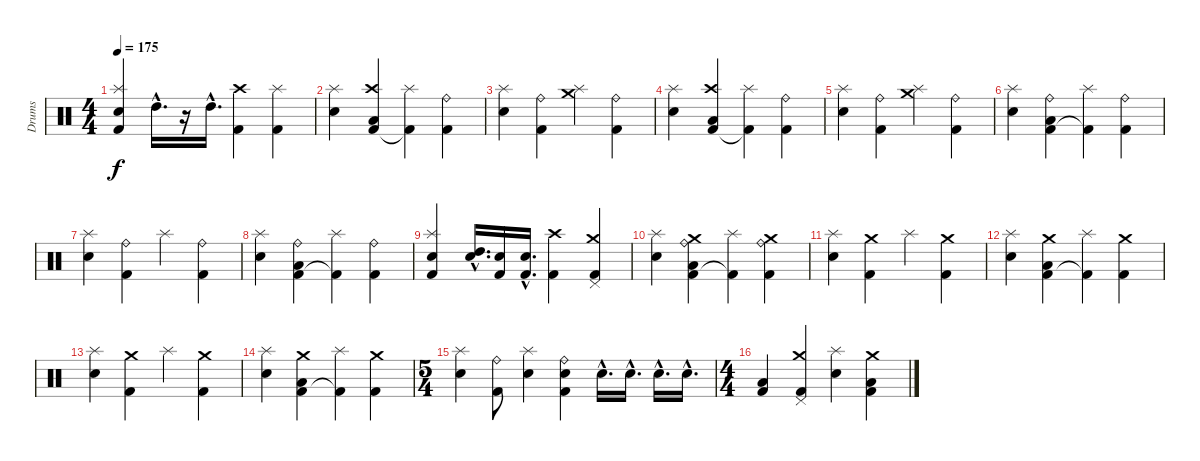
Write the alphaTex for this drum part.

\track ("Drums" "Drums") {instrument percussion}
\staff {score}
\articulation defaults
\ts (4 4)
\tempo 175
\clef neutral
\ks c
("Electric Snare (hit)" "Splash (hit)" "Kick (hit) 2").4{dy f} "High Tom (hit)"{hac}.16{d} r.16 "High Tom (hit)"{hac}.16{d} ("Kick (hit) 2" "Crash high (hit)").4 ("Kick (hit) 2" "Splash (hit)").4 |
("Electric Snare (hit)" "Splash (hit)").4 ("Kick (hit) 2" "Low Tom (hit)" "Crash high (hit)").4 ("Kick (hit) 2"{t} "Splash (hit)").4 ("Kick (hit) 2" "Ride (bell)").4 |
("Electric Snare (hit)" "Splash (hit)").4 ("Kick (hit) 2" "Ride (bell)").4 ("Crash medium (hit)" "Splash (hit)").4 ("Kick (hit) 2" "Ride (bell)").4 |
("Electric Snare (hit)" "Splash (hit)").4 ("Kick (hit) 2" "Low Tom (hit)" "Crash high (hit)").4 ("Kick (hit) 2"{t} "Splash (hit)").4 ("Kick (hit) 2" "Ride (bell)").4 |
("Electric Snare (hit)" "Splash (hit)").4 ("Kick (hit) 2" "Ride (bell)").4 ("Crash medium (hit)" "Splash (hit)").4 ("Kick (hit) 2" "Ride (bell)").4 |
("Electric Snare (hit)" "Splash (hit)").4 ("Kick (hit) 2" "Low Tom (hit)" "Ride (bell)").4 ("Kick (hit) 2"{t} "Splash (hit)").4 ("Kick (hit) 2" "Ride (bell)").4 |
("Electric Snare (hit)" "Splash (hit)").4 ("Kick (hit) 2" "Ride (bell)").4 "Splash (hit)".4 ("Kick (hit) 2" "Ride (bell)").4 |
("Electric Snare (hit)" "Splash (hit)").4 ("Kick (hit) 2" "Low Tom (hit)" "Ride (bell)").4 ("Kick (hit) 2"{t} "Splash (hit)").4 ("Kick (hit) 2" "Ride (bell)").4 |
("Electric Snare (hit)" "Splash (hit)" "Kick (hit) 2").4 ("High Tom (hit)"{hac} "Electric Snare (hit)"{hac}).16{d} ("Electric Snare (hit)" "Kick (hit) 2").16 ("Electric Snare (hit)"{hac} "Kick (hit) 2"{hac}).16{d} ("Kick (hit) 2" "Crash high (hit)").4 ("Kick (hit) 2" "Pedal Hi-Hat (hit)" "Crash medium (hit)").4 |
("Electric Snare (hit)" "Splash (hit)").4 ("Kick (hit) 2" "Low Tom (hit)" "Ride (bell)" "Crash medium (hit)").4 ("Kick (hit) 2"{t} "Splash (hit)").4 ("Kick (hit) 2" "Ride (bell)" "Crash medium (hit)").4 |
("Electric Snare (hit)" "Splash (hit)").4 ("Kick (hit) 2" "Crash medium (hit)").4 "Splash (hit)".4 ("Kick (hit) 2" "Crash medium (hit)").4 |
("Electric Snare (hit)" "Splash (hit)").4 ("Kick (hit) 2" "Low Tom (hit)" "Crash medium (hit)").4 ("Kick (hit) 2"{t} "Splash (hit)").4 ("Kick (hit) 2" "Crash medium (hit)").4 |
("Electric Snare (hit)" "Splash (hit)").4 ("Kick (hit) 2" "Crash medium (hit)").4 "Splash (hit)".4 ("Kick (hit) 2" "Crash medium (hit)").4 |
("Electric Snare (hit)" "Splash (hit)").4 ("Kick (hit) 2" "Low Tom (hit)" "Crash medium (hit)").4 ("Kick (hit) 2"{t} "Splash (hit)").4 ("Kick (hit) 2" "Crash medium (hit)").4 |
\ts (5 4)
("Electric Snare (hit)" "Splash (hit)").4 ("Kick (hit) 2" "Ride (bell)").8 ("Electric Snare (hit)" "Splash (hit)").4 ("Kick (hit) 2" "Electric Snare (hit)" "Ride (bell)").4 "Electric Snare (hit)"{hac}.16{d} "Electric Snare (hit)"{hac}.16{d} "Electric Snare (hit)"{hac}.16{d} "Electric Snare (hit)"{hac}.16{d} |
\ts (4 4)
("Kick (hit) 2" "Low Tom (hit)").4 ("Kick (hit) 2" "Pedal Hi-Hat (hit)" "Crash medium (hit)").4 ("Electric Snare (hit)" "Splash (hit)").4 ("Kick (hit) 2" "Low Tom (hit)" "Crash medium (hit)").4
